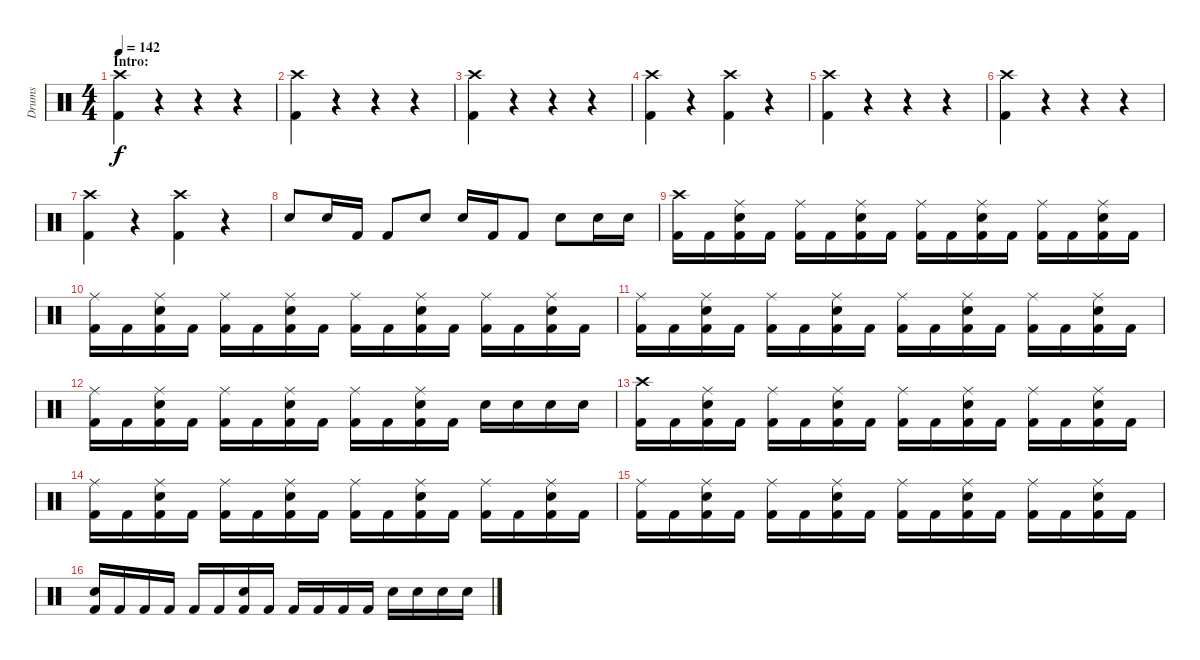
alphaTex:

\track ("Drums" "Drums") {instrument percussion}
\staff {score}
\articulation defaults
\ts (4 4)
\section ("" "Intro:")
\tempo 142
\clef neutral
\ks c
("Crash high (hit)" "Kick (hit) 2").4{dy f} r.4 r.4 r.4 |
("Crash high (hit)" "Kick (hit) 2").4 r.4 r.4 r.4 |
("Crash high (hit)" "Kick (hit) 2").4 r.4 r.4 r.4 |
("Crash high (hit)" "Kick (hit) 2").4 r.4 ("Crash high (hit)" "Kick (hit) 2").4 r.4 |
("Crash high (hit)" "Kick (hit) 2").4 r.4 r.4 r.4 |
("Crash high (hit)" "Kick (hit) 2").4 r.4 r.4 r.4 |
("Crash high (hit)" "Kick (hit) 2").4 r.4 ("Crash high (hit)" "Kick (hit) 2").4 r.4 |
"Electric Snare (hit)".8 "Electric Snare (hit)".16 "Kick (hit) 2".16 "Kick (hit) 2".8 "Electric Snare (hit)".8 "Electric Snare (hit)".16 "Kick (hit) 2".16 "Kick (hit) 2".8 "Electric Snare (hit)".8 "Electric Snare (hit)".16 "Electric Snare (hit)".16 |
("Crash high (hit)" "Kick (hit) 2").16 "Kick (hit) 2".16 ("Ride (middle)" "Electric Snare (hit)" "Kick (hit) 2").16 "Kick (hit) 2".16 ("Ride (middle)" "Kick (hit) 2").16 "Kick (hit) 2".16 ("Ride (middle)" "Electric Snare (hit)" "Kick (hit) 2").16 "Kick (hit) 2".16 ("Ride (middle)" "Kick (hit) 2").16 "Kick (hit) 2".16 ("Ride (middle)" "Electric Snare (hit)" "Kick (hit) 2").16 "Kick (hit) 2".16 ("Ride (middle)" "Kick (hit) 2").16 "Kick (hit) 2".16 ("Ride (middle)" "Electric Snare (hit)" "Kick (hit) 2").16 "Kick (hit) 2".16 |
("Ride (middle)" "Kick (hit) 2").16 "Kick (hit) 2".16 ("Ride (middle)" "Electric Snare (hit)" "Kick (hit) 2").16 "Kick (hit) 2".16 ("Ride (middle)" "Kick (hit) 2").16 "Kick (hit) 2".16 ("Ride (middle)" "Electric Snare (hit)" "Kick (hit) 2").16 "Kick (hit) 2".16 ("Ride (middle)" "Kick (hit) 2").16 "Kick (hit) 2".16 ("Ride (middle)" "Electric Snare (hit)" "Kick (hit) 2").16 "Kick (hit) 2".16 ("Ride (middle)" "Kick (hit) 2").16 "Kick (hit) 2".16 ("Ride (middle)" "Electric Snare (hit)" "Kick (hit) 2").16 "Kick (hit) 2".16 |
("Ride (middle)" "Kick (hit) 2").16 "Kick (hit) 2".16 ("Ride (middle)" "Electric Snare (hit)" "Kick (hit) 2").16 "Kick (hit) 2".16 ("Ride (middle)" "Kick (hit) 2").16 "Kick (hit) 2".16 ("Ride (middle)" "Electric Snare (hit)" "Kick (hit) 2").16 "Kick (hit) 2".16 ("Ride (middle)" "Kick (hit) 2").16 "Kick (hit) 2".16 ("Ride (middle)" "Electric Snare (hit)" "Kick (hit) 2").16 "Kick (hit) 2".16 ("Ride (middle)" "Kick (hit) 2").16 "Kick (hit) 2".16 ("Ride (middle)" "Electric Snare (hit)" "Kick (hit) 2").16 "Kick (hit) 2".16 |
("Ride (middle)" "Kick (hit) 2").16 "Kick (hit) 2".16 ("Ride (middle)" "Electric Snare (hit)" "Kick (hit) 2").16 "Kick (hit) 2".16 ("Ride (middle)" "Kick (hit) 2").16 "Kick (hit) 2".16 ("Ride (middle)" "Electric Snare (hit)" "Kick (hit) 2").16 "Kick (hit) 2".16 ("Ride (middle)" "Kick (hit) 2").16 "Kick (hit) 2".16 ("Ride (middle)" "Electric Snare (hit)" "Kick (hit) 2").16 "Kick (hit) 2".16 "Electric Snare (hit)".16 "Electric Snare (hit)".16 "Electric Snare (hit)".16 "Electric Snare (hit)".16 |
("Crash high (hit)" "Kick (hit) 2").16 "Kick (hit) 2".16 ("Ride (middle)" "Electric Snare (hit)" "Kick (hit) 2").16 "Kick (hit) 2".16 ("Ride (middle)" "Kick (hit) 2").16 "Kick (hit) 2".16 ("Ride (middle)" "Electric Snare (hit)" "Kick (hit) 2").16 "Kick (hit) 2".16 ("Ride (middle)" "Kick (hit) 2").16 "Kick (hit) 2".16 ("Ride (middle)" "Electric Snare (hit)" "Kick (hit) 2").16 "Kick (hit) 2".16 ("Ride (middle)" "Kick (hit) 2").16 "Kick (hit) 2".16 ("Ride (middle)" "Electric Snare (hit)" "Kick (hit) 2").16 "Kick (hit) 2".16 |
("Ride (middle)" "Kick (hit) 2").16 "Kick (hit) 2".16 ("Ride (middle)" "Electric Snare (hit)" "Kick (hit) 2").16 "Kick (hit) 2".16 ("Ride (middle)" "Kick (hit) 2").16 "Kick (hit) 2".16 ("Ride (middle)" "Electric Snare (hit)" "Kick (hit) 2").16 "Kick (hit) 2".16 ("Ride (middle)" "Kick (hit) 2").16 "Kick (hit) 2".16 ("Ride (middle)" "Electric Snare (hit)" "Kick (hit) 2").16 "Kick (hit) 2".16 ("Ride (middle)" "Kick (hit) 2").16 "Kick (hit) 2".16 ("Ride (middle)" "Electric Snare (hit)" "Kick (hit) 2").16 "Kick (hit) 2".16 |
("Ride (middle)" "Kick (hit) 2").16 "Kick (hit) 2".16 ("Ride (middle)" "Electric Snare (hit)" "Kick (hit) 2").16 "Kick (hit) 2".16 ("Ride (middle)" "Kick (hit) 2").16 "Kick (hit) 2".16 ("Ride (middle)" "Electric Snare (hit)" "Kick (hit) 2").16 "Kick (hit) 2".16 ("Ride (middle)" "Kick (hit) 2").16 "Kick (hit) 2".16 ("Ride (middle)" "Electric Snare (hit)" "Kick (hit) 2").16 "Kick (hit) 2".16 ("Ride (middle)" "Kick (hit) 2").16 "Kick (hit) 2".16 ("Ride (middle)" "Electric Snare (hit)" "Kick (hit) 2").16 "Kick (hit) 2".16 |
("Electric Snare (hit)" "Kick (hit) 2").16 "Kick (hit) 2".16 "Kick (hit) 2".16 "Kick (hit) 2".16 "Kick (hit) 2".16 "Kick (hit) 2".16 ("Electric Snare (hit)" "Kick (hit) 2").16 "Kick (hit) 2".16 "Kick (hit) 2".16 "Kick (hit) 2".16 "Kick (hit) 2".16 "Kick (hit) 2".16 "Electric Snare (hit)".16 "Electric Snare (hit)".16 "Electric Snare (hit)".16 "Electric Snare (hit)".16
